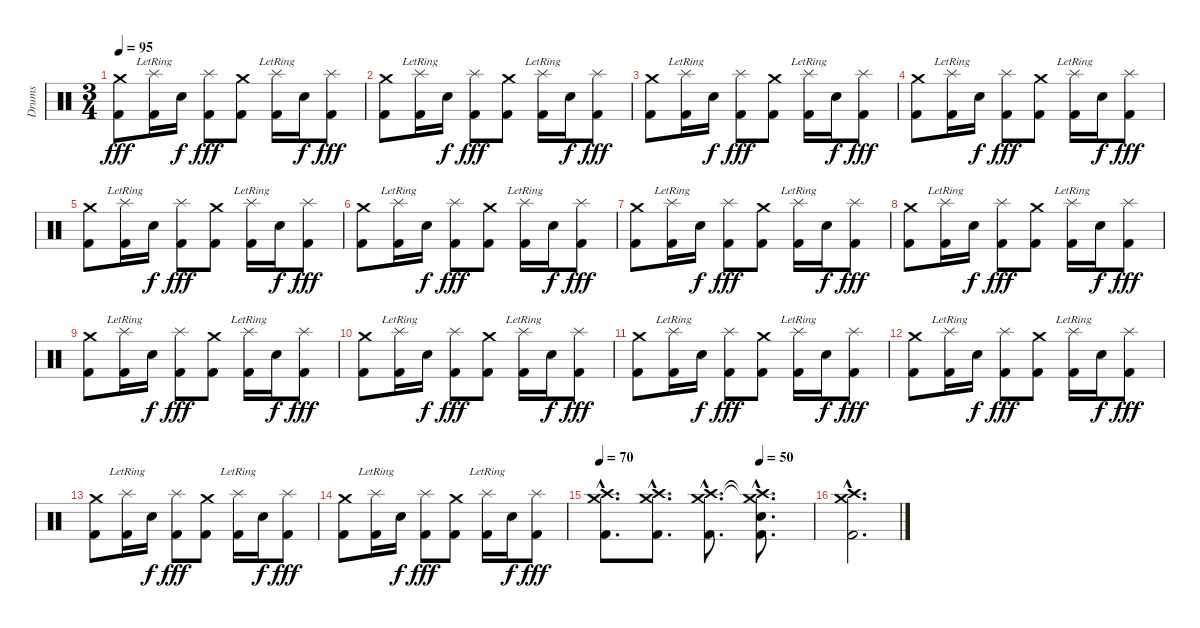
\track ("Drums" "Drums") {instrument percussion}
\staff {score}
\articulation defaults
\ts (3 4)
\tempo 95
\clef neutral
\ks c
("Crash medium (hit)" "Kick (hit) 2").8{dy fff} ("Splash (hit)"{lr} "Kick (hit) 2").16 "Snare (hit) 2".16{dy f} ("Splash (hit)" "Kick (hit) 2").8{dy fff} ("Crash medium (hit)" "Kick (hit) 2").8 ("Splash (hit)"{lr} "Kick (hit) 2").16 "Snare (hit) 2".16{dy f} ("Splash (hit)" "Kick (hit) 2").8{dy fff} |
("Crash medium (hit)" "Kick (hit) 2").8 ("Splash (hit)"{lr} "Kick (hit) 2").16 "Snare (hit) 2".16{dy f} ("Splash (hit)" "Kick (hit) 2").8{dy fff} ("Crash medium (hit)" "Kick (hit) 2").8 ("Splash (hit)"{lr} "Kick (hit) 2").16 "Snare (hit) 2".16{dy f} ("Splash (hit)" "Kick (hit) 2").8{dy fff} |
("Crash medium (hit)" "Kick (hit) 2").8 ("Splash (hit)"{lr} "Kick (hit) 2").16 "Snare (hit) 2".16{dy f} ("Splash (hit)" "Kick (hit) 2").8{dy fff} ("Crash medium (hit)" "Kick (hit) 2").8 ("Splash (hit)"{lr} "Kick (hit) 2").16 "Snare (hit) 2".16{dy f} ("Splash (hit)" "Kick (hit) 2").8{dy fff} |
("Crash medium (hit)" "Kick (hit) 2").8 ("Splash (hit)"{lr} "Kick (hit) 2").16 "Snare (hit) 2".16{dy f} ("Splash (hit)" "Kick (hit) 2").8{dy fff} ("Crash medium (hit)" "Kick (hit) 2").8 ("Splash (hit)"{lr} "Kick (hit) 2").16 "Snare (hit) 2".16{dy f} ("Splash (hit)" "Kick (hit) 2").8{dy fff} |
("Crash medium (hit)" "Kick (hit) 2").8 ("Splash (hit)"{lr} "Kick (hit) 2").16 "Snare (hit) 2".16{dy f} ("Splash (hit)" "Kick (hit) 2").8{dy fff} ("Crash medium (hit)" "Kick (hit) 2").8 ("Splash (hit)"{lr} "Kick (hit) 2").16 "Snare (hit) 2".16{dy f} ("Splash (hit)" "Kick (hit) 2").8{dy fff} |
("Crash medium (hit)" "Kick (hit) 2").8 ("Splash (hit)"{lr} "Kick (hit) 2").16 "Snare (hit) 2".16{dy f} ("Splash (hit)" "Kick (hit) 2").8{dy fff} ("Crash medium (hit)" "Kick (hit) 2").8 ("Splash (hit)"{lr} "Kick (hit) 2").16 "Snare (hit) 2".16{dy f} ("Splash (hit)" "Kick (hit) 2").8{dy fff} |
("Crash medium (hit)" "Kick (hit) 2").8 ("Splash (hit)"{lr} "Kick (hit) 2").16 "Snare (hit) 2".16{dy f} ("Splash (hit)" "Kick (hit) 2").8{dy fff} ("Crash medium (hit)" "Kick (hit) 2").8 ("Splash (hit)"{lr} "Kick (hit) 2").16 "Snare (hit) 2".16{dy f} ("Splash (hit)" "Kick (hit) 2").8{dy fff} |
("Crash medium (hit)" "Kick (hit) 2").8 ("Splash (hit)"{lr} "Kick (hit) 2").16 "Snare (hit) 2".16{dy f} ("Splash (hit)" "Kick (hit) 2").8{dy fff} ("Crash medium (hit)" "Kick (hit) 2").8 ("Splash (hit)"{lr} "Kick (hit) 2").16 "Snare (hit) 2".16{dy f} ("Splash (hit)" "Kick (hit) 2").8{dy fff} |
("Crash medium (hit)" "Kick (hit) 2").8 ("Splash (hit)"{lr} "Kick (hit) 2").16 "Snare (hit) 2".16{dy f} ("Splash (hit)" "Kick (hit) 2").8{dy fff} ("Crash medium (hit)" "Kick (hit) 2").8 ("Splash (hit)"{lr} "Kick (hit) 2").16 "Snare (hit) 2".16{dy f} ("Splash (hit)" "Kick (hit) 2").8{dy fff} |
("Crash medium (hit)" "Kick (hit) 2").8 ("Splash (hit)"{lr} "Kick (hit) 2").16 "Snare (hit) 2".16{dy f} ("Splash (hit)" "Kick (hit) 2").8{dy fff} ("Crash medium (hit)" "Kick (hit) 2").8 ("Splash (hit)"{lr} "Kick (hit) 2").16 "Snare (hit) 2".16{dy f} ("Splash (hit)" "Kick (hit) 2").8{dy fff} |
("Crash medium (hit)" "Kick (hit) 2").8 ("Splash (hit)"{lr} "Kick (hit) 2").16 "Snare (hit) 2".16{dy f} ("Splash (hit)" "Kick (hit) 2").8{dy fff} ("Crash medium (hit)" "Kick (hit) 2").8 ("Splash (hit)"{lr} "Kick (hit) 2").16 "Snare (hit) 2".16{dy f} ("Splash (hit)" "Kick (hit) 2").8{dy fff} |
("Crash medium (hit)" "Kick (hit) 2").8 ("Splash (hit)"{lr} "Kick (hit) 2").16 "Snare (hit) 2".16{dy f} ("Splash (hit)" "Kick (hit) 2").8{dy fff} ("Crash medium (hit)" "Kick (hit) 2").8 ("Splash (hit)"{lr} "Kick (hit) 2").16 "Snare (hit) 2".16{dy f} ("Splash (hit)" "Kick (hit) 2").8{dy fff} |
("Crash medium (hit)" "Kick (hit) 2").8 ("Splash (hit)"{lr} "Kick (hit) 2").16 "Snare (hit) 2".16{dy f} ("Splash (hit)" "Kick (hit) 2").8{dy fff} ("Crash medium (hit)" "Kick (hit) 2").8 ("Splash (hit)"{lr} "Kick (hit) 2").16 "Snare (hit) 2".16{dy f} ("Splash (hit)" "Kick (hit) 2").8{dy fff} |
("Crash medium (hit)" "Kick (hit) 2").8 ("Splash (hit)"{lr} "Kick (hit) 2").16 "Snare (hit) 2".16{dy f} ("Splash (hit)" "Kick (hit) 2").8{dy fff} ("Crash medium (hit)" "Kick (hit) 2").8 ("Splash (hit)"{lr} "Kick (hit) 2").16 "Snare (hit) 2".16{dy f} ("Splash (hit)" "Kick (hit) 2").8{dy fff} |
\tempo 70
\tempo (50 0.75)
("Crash medium (hit)"{hac} "Crash high (hit)"{hac} "Kick (hit) 2"{hac}).8{d} ("Crash medium (hit)"{hac} "Crash high (hit)"{hac} "Kick (hit) 2"{hac}).8{d} ("Crash medium (hit)"{hac} "Crash high (hit)"{hac} "Kick (hit) 2"{hac}).8{d} ("Crash medium (hit)"{hac t} "Crash high (hit)"{hac t} "Snare (hit) 2"{hac} "Kick (hit) 2"{hac}).8{d bd 240} |
("Crash medium (hit)"{hac} "Crash high (hit)"{hac} "Kick (hit) 2"{hac}).2{d}
